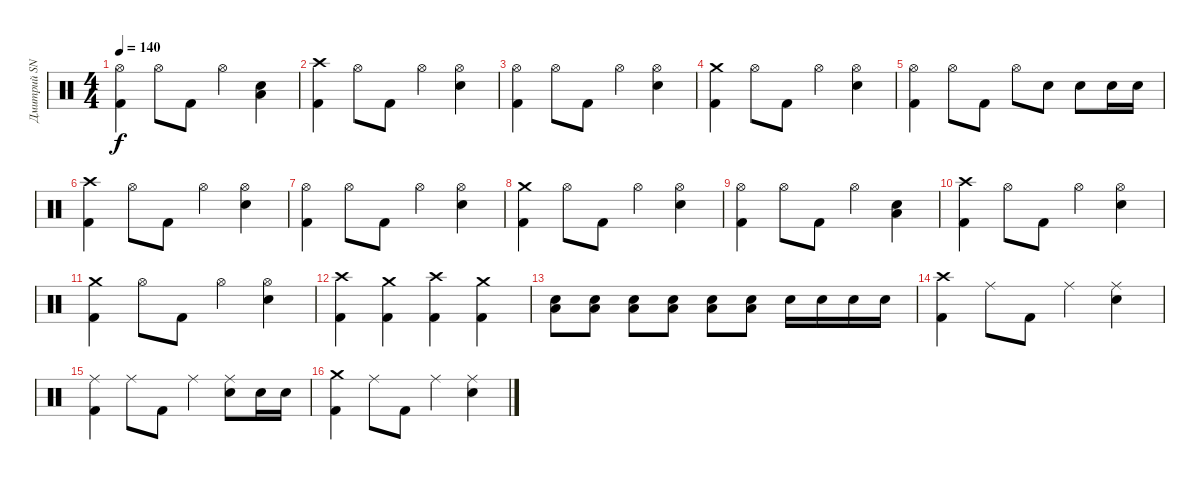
\track ("Дмитрий SNAKE Хакимов" "Дмитрий SN") {instrument percussion}
\staff {score}
\articulation defaults
\ts (4 4)
\tempo 140
\clef neutral
\ks c
("Hi-Hat (open)" "Kick (hit) 2").4{dy f} "Hi-Hat (open)".8 "Kick (hit) 2".8 "Hi-Hat (open)".4 ("Snare (hit) 2" "Low Tom (hit)").4 |
("Crash high (hit)" "Kick (hit) 2").4 "Hi-Hat (open)".8 "Kick (hit) 2".8 "Hi-Hat (open)".4 ("Hi-Hat (open)" "Snare (hit) 2").4 |
("Hi-Hat (open)" "Kick (hit) 2").4 "Hi-Hat (open)".8 "Kick (hit) 2".8 "Hi-Hat (open)".4 ("Hi-Hat (open)" "Snare (hit) 2").4 |
("Crash medium (hit)" "Kick (hit) 2").4 "Hi-Hat (open)".8 "Kick (hit) 2".8 "Hi-Hat (open)".4 ("Hi-Hat (open)" "Snare (hit) 2").4 |
("Hi-Hat (open)" "Kick (hit) 2").4 "Hi-Hat (open)".8 "Kick (hit) 2".8 "Hi-Hat (open)".8 "Snare (hit) 2".8 "Snare (hit) 2".8 "Snare (hit) 2".16 "Snare (hit) 2".16 |
("Crash high (hit)" "Kick (hit) 2").4 "Hi-Hat (open)".8 "Kick (hit) 2".8 "Hi-Hat (open)".4 ("Hi-Hat (open)" "Snare (hit) 2").4 |
("Hi-Hat (open)" "Kick (hit) 2").4 "Hi-Hat (open)".8 "Kick (hit) 2".8 "Hi-Hat (open)".4 ("Hi-Hat (open)" "Snare (hit) 2").4 |
("Crash medium (hit)" "Kick (hit) 2").4 "Hi-Hat (open)".8 "Kick (hit) 2".8 "Hi-Hat (open)".4 ("Hi-Hat (open)" "Snare (hit) 2").4 |
("Hi-Hat (open)" "Kick (hit) 2").4 "Hi-Hat (open)".8 "Kick (hit) 2".8 "Hi-Hat (open)".4 ("Snare (hit) 2" "Low Tom (hit)").4 |
("Crash high (hit)" "Kick (hit) 2").4 "Hi-Hat (open)".8 "Kick (hit) 2".8 "Hi-Hat (open)".4 ("Hi-Hat (open)" "Snare (hit) 2").4 |
("Crash medium (hit)" "Kick (hit) 2").4 "Hi-Hat (open)".8 "Kick (hit) 2".8 "Hi-Hat (open)".4 ("Hi-Hat (open)" "Snare (hit) 2").4 |
("Crash high (hit)" "Kick (hit) 2").4 ("Crash medium (hit)" "Kick (hit) 2").4 ("Crash high (hit)" "Kick (hit) 2").4 ("Crash medium (hit)" "Kick (hit) 2").4 |
("Snare (hit) 2" "Low Tom (hit)").8 ("Snare (hit) 2" "Low Tom (hit)").8 ("Snare (hit) 2" "Low Tom (hit)").8 ("Snare (hit) 2" "Low Tom (hit)").8 ("Snare (hit) 2" "Low Tom (hit)").8 ("Snare (hit) 2" "Low Tom (hit)").8 "Snare (hit) 2".16 "Snare (hit) 2".16 "Snare (hit) 2".16 "Snare (hit) 2".16 |
("Crash high (hit)" "Kick (hit) 2").4 "Ride (middle)".8 "Kick (hit) 2".8 "Ride (middle)".4 ("Ride (middle)" "Snare (hit) 2").4 |
("Ride (middle)" "Kick (hit) 2").4 "Ride (middle)".8 "Kick (hit) 2".8 "Ride (middle)".4 ("Ride (middle)" "Snare (hit) 2").8 "Snare (hit) 2".16 "Snare (hit) 2".16 |
("Crash medium (hit)" "Kick (hit) 2").4 "Ride (middle)".8 "Kick (hit) 2".8 "Ride (middle)".4 ("Ride (middle)" "Snare (hit) 2").4
